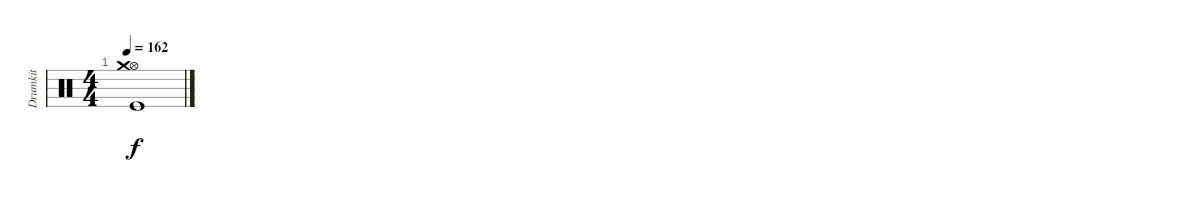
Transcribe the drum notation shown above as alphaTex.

\track ("Drumkit" "Drumkit") {instrument percussion}
\staff {score}
\articulation defaults
\ts (4 4)
\tempo 162
\clef neutral
\ks c
("Hi-Hat (open)"{t} "Kick (hit)"{t} "Crash medium (hit)"{t}).1{dy f}
